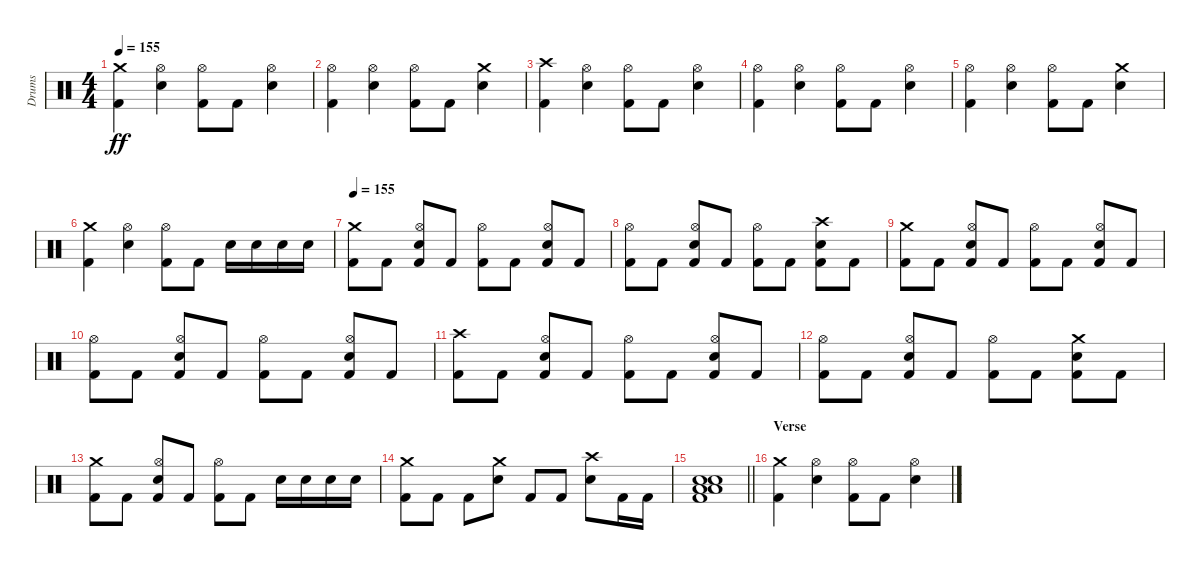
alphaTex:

\track ("Drums" "Drums") {solo instrument percussion}
\staff {score}
\articulation defaults
\ts (4 4)
\tempo 155
\clef neutral
\ks c
("Crash medium (hit)" "Kick (hit) 2").4{dy ff} ("Hi-Hat (open)" "Electric Snare (hit)").4 ("Hi-Hat (open)" "Kick (hit) 2").8 "Kick (hit) 2".8 ("Hi-Hat (open)" "Electric Snare (hit)").4 |
("Hi-Hat (open)" "Kick (hit) 2").4 ("Hi-Hat (open)" "Electric Snare (hit)").4 ("Hi-Hat (open)" "Kick (hit) 2").8 "Kick (hit) 2".8 ("Crash medium (hit)" "Electric Snare (hit)").4 |
("Crash high (hit)" "Kick (hit) 2").4 ("Hi-Hat (open)" "Electric Snare (hit)").4 ("Hi-Hat (open)" "Kick (hit) 2").8 "Kick (hit) 2".8 ("Hi-Hat (open)" "Electric Snare (hit)").4 |
("Hi-Hat (open)" "Kick (hit) 2").4 ("Hi-Hat (open)" "Electric Snare (hit)").4 ("Hi-Hat (open)" "Kick (hit) 2").8 "Kick (hit) 2".8 ("Hi-Hat (open)" "Electric Snare (hit)").4 |
("Hi-Hat (open)" "Kick (hit) 2").4 ("Hi-Hat (open)" "Electric Snare (hit)").4 ("Hi-Hat (open)" "Kick (hit) 2").8 "Kick (hit) 2".8 ("Crash medium (hit)" "Electric Snare (hit)").4 |
("Crash medium (hit)" "Kick (hit) 2").4 ("Hi-Hat (open)" "Electric Snare (hit)").4 ("Hi-Hat (open)" "Kick (hit) 2").8 "Kick (hit) 2".8 "Electric Snare (hit)".16 "Electric Snare (hit)".16 "Electric Snare (hit)".16 "Electric Snare (hit)".16 |
\tempo 155
("Crash medium (hit)" "Kick (hit) 2").8 "Kick (hit) 2".8 ("Hi-Hat (open)" "Electric Snare (hit)" "Kick (hit) 2").8 "Kick (hit) 2".8 ("Hi-Hat (open)" "Kick (hit) 2").8 "Kick (hit) 2".8 ("Electric Snare (hit)" "Hi-Hat (open)" "Kick (hit) 2").8 "Kick (hit) 2".8 |
("Hi-Hat (open)" "Kick (hit) 2").8 "Kick (hit) 2".8 ("Hi-Hat (open)" "Electric Snare (hit)" "Kick (hit) 2").8 "Kick (hit) 2".8 ("Hi-Hat (open)" "Kick (hit) 2").8 "Kick (hit) 2".8 ("Electric Snare (hit)" "Crash high (hit)" "Kick (hit) 2").8 "Kick (hit) 2".8 |
("Crash medium (hit)" "Kick (hit) 2").8 "Kick (hit) 2".8 ("Hi-Hat (open)" "Electric Snare (hit)" "Kick (hit) 2").8 "Kick (hit) 2".8 ("Hi-Hat (open)" "Kick (hit) 2").8 "Kick (hit) 2".8 ("Electric Snare (hit)" "Hi-Hat (open)" "Kick (hit) 2").8 "Kick (hit) 2".8 |
("Hi-Hat (open)" "Kick (hit) 2").8 "Kick (hit) 2".8 ("Hi-Hat (open)" "Electric Snare (hit)" "Kick (hit) 2").8 "Kick (hit) 2".8 ("Hi-Hat (open)" "Kick (hit) 2").8 "Kick (hit) 2".8 ("Electric Snare (hit)" "Hi-Hat (open)" "Kick (hit) 2").8 "Kick (hit) 2".8 |
("Crash high (hit)" "Kick (hit) 2").8 "Kick (hit) 2".8 ("Hi-Hat (open)" "Electric Snare (hit)" "Kick (hit) 2").8 "Kick (hit) 2".8 ("Hi-Hat (open)" "Kick (hit) 2").8 "Kick (hit) 2".8 ("Electric Snare (hit)" "Hi-Hat (open)" "Kick (hit) 2").8 "Kick (hit) 2".8 |
("Hi-Hat (open)" "Kick (hit) 2").8 "Kick (hit) 2".8 ("Hi-Hat (open)" "Electric Snare (hit)" "Kick (hit) 2").8 "Kick (hit) 2".8 ("Hi-Hat (open)" "Kick (hit) 2").8 "Kick (hit) 2".8 ("Electric Snare (hit)" "Crash medium (hit)" "Kick (hit) 2").8 "Kick (hit) 2".8 |
("Crash medium (hit)" "Kick (hit) 2").8 "Kick (hit) 2".8 ("Hi-Hat (open)" "Electric Snare (hit)" "Kick (hit) 2").8 "Kick (hit) 2".8 ("Hi-Hat (open)" "Kick (hit) 2").8 "Kick (hit) 2".8 "Electric Snare (hit)".16 "Electric Snare (hit)".16 "Electric Snare (hit)".16 "Electric Snare (hit)".16 |
("Crash medium (hit)" "Kick (hit) 2").8 "Kick (hit) 2".8 "Kick (hit) 2".8 ("Crash medium (hit)" "Electric Snare (hit)").8 "Kick (hit) 2".8 "Kick (hit) 2".8 ("Crash high (hit)" "Electric Snare (hit)").8 "Kick (hit) 2".16 "Kick (hit) 2".16 |
\barLineRight lightlight
("Low Tom (hit)" "Low Floor Tom (hit)" "Electric Snare (hit)" "Electric Snare (hit)" "Kick (hit) 2").1 |
\section ("" "Verse")
("Crash medium (hit)" "Kick (hit) 2").4 ("Hi-Hat (open)" "Electric Snare (hit)").4 ("Hi-Hat (open)" "Kick (hit) 2").8 "Kick (hit) 2".8 ("Hi-Hat (open)" "Electric Snare (hit)").4
